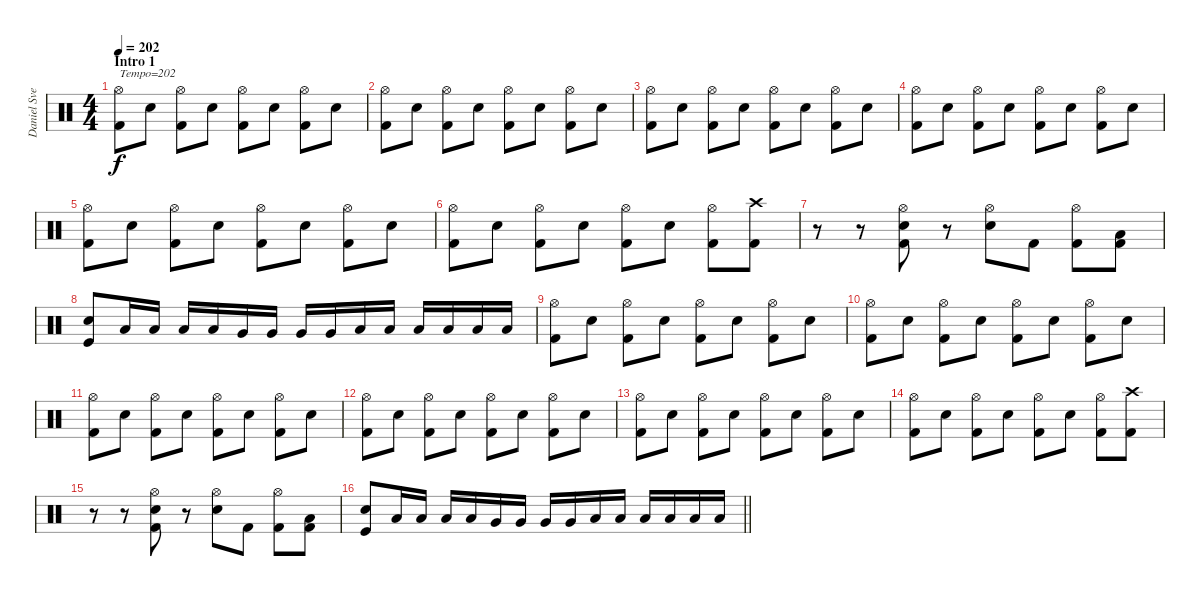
\track ("Daniel Svensson" "Daniel Sve") {instrument percussion}
\staff {score}
\articulation defaults
\ts (4 4)
\section ("" "Intro 1")
\tempo 202
\clef neutral
\ks c
("Hi-Hat (open)" "Kick (hit) 2").8{txt "Tempo=202" dy f} "Electric Snare (hit)".8 ("Hi-Hat (open)" "Kick (hit) 2").8 "Electric Snare (hit)".8 ("Hi-Hat (open)" "Kick (hit) 2").8 "Electric Snare (hit)".8 ("Hi-Hat (open)" "Kick (hit) 2").8 "Electric Snare (hit)".8 |
("Hi-Hat (open)" "Kick (hit) 2").8 "Electric Snare (hit)".8 ("Hi-Hat (open)" "Kick (hit) 2").8 "Electric Snare (hit)".8 ("Hi-Hat (open)" "Kick (hit) 2").8 "Electric Snare (hit)".8 ("Hi-Hat (open)" "Kick (hit) 2").8 "Electric Snare (hit)".8 |
("Hi-Hat (open)" "Kick (hit) 2").8 "Electric Snare (hit)".8 ("Hi-Hat (open)" "Kick (hit) 2").8 "Electric Snare (hit)".8 ("Hi-Hat (open)" "Kick (hit) 2").8 "Electric Snare (hit)".8 ("Hi-Hat (open)" "Kick (hit) 2").8 "Electric Snare (hit)".8 |
("Hi-Hat (open)" "Kick (hit) 2").8 "Electric Snare (hit)".8 ("Hi-Hat (open)" "Kick (hit) 2").8 "Electric Snare (hit)".8 ("Hi-Hat (open)" "Kick (hit) 2").8 "Electric Snare (hit)".8 ("Hi-Hat (open)" "Kick (hit) 2").8 "Electric Snare (hit)".8 |
("Hi-Hat (open)" "Kick (hit) 2").8 "Electric Snare (hit)".8 ("Hi-Hat (open)" "Kick (hit) 2").8 "Electric Snare (hit)".8 ("Hi-Hat (open)" "Kick (hit) 2").8 "Electric Snare (hit)".8 ("Hi-Hat (open)" "Kick (hit) 2").8 "Electric Snare (hit)".8 |
("Hi-Hat (open)" "Kick (hit) 2").8 "Electric Snare (hit)".8 ("Hi-Hat (open)" "Kick (hit) 2").8 "Electric Snare (hit)".8 ("Hi-Hat (open)" "Kick (hit) 2").8 "Electric Snare (hit)".8 ("Hi-Hat (open)" "Kick (hit) 2").8 ("Crash high (hit)" "Kick (hit) 2").8 |
r.8 r.8 ("Hi-Hat (open)" "Electric Snare (hit)" "Kick (hit) 2").8 r.8 ("Hi-Hat (open)" "Electric Snare (hit)").8 "Kick (hit) 2".8 ("Hi-Hat (open)" "Kick (hit) 2").8 ("Low Floor Tom (hit)" "Kick (hit) 2").8 |
("Electric Snare (hit)" "Kick (hit)").8 "Low Tom (hit)".16 "Low Tom (hit)".16 "Low Tom (hit)".16 "Low Tom (hit)".16 "Very Low Tom (hit)".16 "Very Low Tom (hit)".16 "Very Low Tom (hit)".16 "Very Low Tom (hit)".16 "Low Floor Tom (hit)".16 "Low Floor Tom (hit)".16 "Low Floor Tom (hit)".16 "Low Floor Tom (hit)".16 "Low Floor Tom (hit)".16 "Low Floor Tom (hit)".16 |
("Hi-Hat (open)" "Kick (hit) 2").8 "Electric Snare (hit)".8 ("Hi-Hat (open)" "Kick (hit) 2").8 "Electric Snare (hit)".8 ("Hi-Hat (open)" "Kick (hit) 2").8 "Electric Snare (hit)".8 ("Hi-Hat (open)" "Kick (hit) 2").8 "Electric Snare (hit)".8 |
("Hi-Hat (open)" "Kick (hit) 2").8 "Electric Snare (hit)".8 ("Hi-Hat (open)" "Kick (hit) 2").8 "Electric Snare (hit)".8 ("Hi-Hat (open)" "Kick (hit) 2").8 "Electric Snare (hit)".8 ("Hi-Hat (open)" "Kick (hit) 2").8 "Electric Snare (hit)".8 |
("Hi-Hat (open)" "Kick (hit) 2").8 "Electric Snare (hit)".8 ("Hi-Hat (open)" "Kick (hit) 2").8 "Electric Snare (hit)".8 ("Hi-Hat (open)" "Kick (hit) 2").8 "Electric Snare (hit)".8 ("Hi-Hat (open)" "Kick (hit) 2").8 "Electric Snare (hit)".8 |
("Hi-Hat (open)" "Kick (hit) 2").8 "Electric Snare (hit)".8 ("Hi-Hat (open)" "Kick (hit) 2").8 "Electric Snare (hit)".8 ("Hi-Hat (open)" "Kick (hit) 2").8 "Electric Snare (hit)".8 ("Hi-Hat (open)" "Kick (hit) 2").8 "Electric Snare (hit)".8 |
("Hi-Hat (open)" "Kick (hit) 2").8 "Electric Snare (hit)".8 ("Hi-Hat (open)" "Kick (hit) 2").8 "Electric Snare (hit)".8 ("Hi-Hat (open)" "Kick (hit) 2").8 "Electric Snare (hit)".8 ("Hi-Hat (open)" "Kick (hit) 2").8 "Electric Snare (hit)".8 |
("Hi-Hat (open)" "Kick (hit) 2").8 "Electric Snare (hit)".8 ("Hi-Hat (open)" "Kick (hit) 2").8 "Electric Snare (hit)".8 ("Hi-Hat (open)" "Kick (hit) 2").8 "Electric Snare (hit)".8 ("Hi-Hat (open)" "Kick (hit) 2").8 ("Crash high (hit)" "Kick (hit) 2").8 |
r.8 r.8 ("Hi-Hat (open)" "Electric Snare (hit)" "Kick (hit) 2").8 r.8 ("Hi-Hat (open)" "Electric Snare (hit)").8 "Kick (hit) 2".8 ("Hi-Hat (open)" "Kick (hit) 2").8 ("Low Floor Tom (hit)" "Kick (hit) 2").8 |
\barLineRight lightlight
("Electric Snare (hit)" "Kick (hit)").8 "Low Tom (hit)".16 "Low Tom (hit)".16 "Low Tom (hit)".16 "Low Tom (hit)".16 "Very Low Tom (hit)".16 "Very Low Tom (hit)".16 "Very Low Tom (hit)".16 "Very Low Tom (hit)".16 "Low Floor Tom (hit)".16 "Low Floor Tom (hit)".16 "Low Floor Tom (hit)".16 "Low Floor Tom (hit)".16 "Low Floor Tom (hit)".16 "Low Floor Tom (hit)".16
